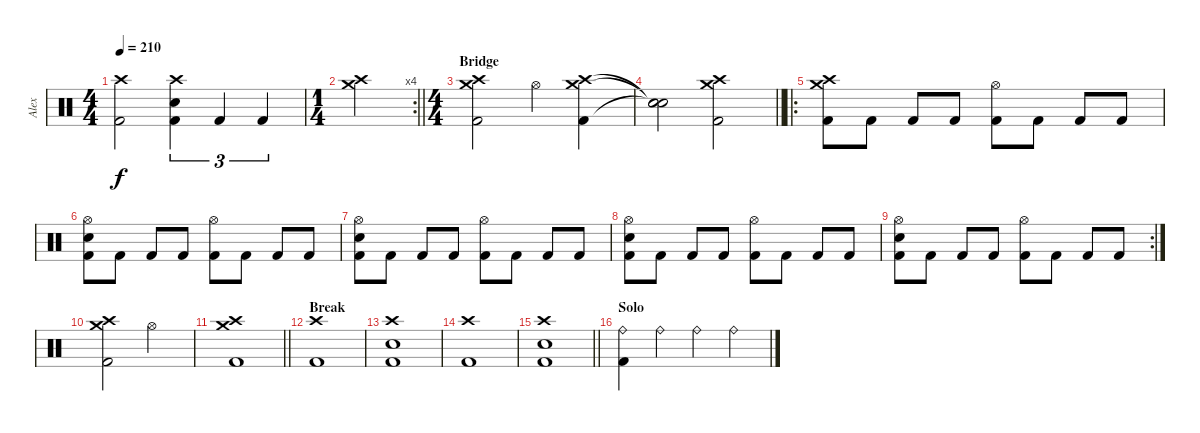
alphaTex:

\track ("Alex" "Alex") {instrument percussion}
\staff {score}
\articulation defaults
\ts (4 4)
\tempo 210
\clef neutral
\ks c
("Crash high (hit)" "Kick (hit) 2").2{dy f} ("Crash high (hit)" "Electric Snare (hit)" "Kick (hit) 2").4{tu (3 2)} "Kick (hit) 2".4{tu (3 2)} "Kick (hit) 2".4{tu (3 2)} |
\rc 4
\ts (1 4)
\barLineRight lightlight
("Crash high (hit)" "Crash medium (hit)").4 |
\ts (4 4)
\section ("" "Bridge")
("Crash high (hit)" "Crash medium (hit)" "Kick (hit) 2").2 "Hi-Hat (open)".4 ("Crash high (hit)" "Crash medium (hit)" "Kick (hit) 2").4 |
\barLineRight lightlight
("Snare (hit)"{t} "Snare (hit)"{t} "Snare (hit)"{t}).2 ("Crash high (hit)" "Crash medium (hit)" "Kick (hit) 2").2 |
\ro
\section ("" "")
("Crash high (hit)" "Crash medium (hit)" "Kick (hit) 2").8 "Kick (hit) 2".8 "Kick (hit) 2".8 "Kick (hit) 2".8 ("Hi-Hat (open)" "Kick (hit) 2").8 "Kick (hit) 2".8 "Kick (hit) 2".8 "Kick (hit) 2".8 |
("Hi-Hat (open)" "Electric Snare (hit)" "Kick (hit) 2").8 "Kick (hit) 2".8 "Kick (hit) 2".8 "Kick (hit) 2".8 ("Hi-Hat (open)" "Kick (hit) 2").8 "Kick (hit) 2".8 "Kick (hit) 2".8 "Kick (hit) 2".8 |
("Hi-Hat (open)" "Electric Snare (hit)" "Kick (hit) 2").8 "Kick (hit) 2".8 "Kick (hit) 2".8 "Kick (hit) 2".8 ("Hi-Hat (open)" "Kick (hit) 2").8 "Kick (hit) 2".8 "Kick (hit) 2".8 "Kick (hit) 2".8 |
("Hi-Hat (open)" "Electric Snare (hit)" "Kick (hit) 2").8 "Kick (hit) 2".8 "Kick (hit) 2".8 "Kick (hit) 2".8 ("Hi-Hat (open)" "Kick (hit) 2").8 "Kick (hit) 2".8 "Kick (hit) 2".8 "Kick (hit) 2".8 |
\rc 2
("Hi-Hat (open)" "Electric Snare (hit)" "Kick (hit) 2").8 "Kick (hit) 2".8 "Kick (hit) 2".8 "Kick (hit) 2".8 ("Hi-Hat (open)" "Kick (hit) 2").8 "Kick (hit) 2".8 "Kick (hit) 2".8 "Kick (hit) 2".8 |
("Crash high (hit)" "Crash medium (hit)" "Kick (hit) 2").2 "Hi-Hat (open)".2 |
\barLineRight lightlight
("Crash high (hit)" "Crash medium (hit)" "Kick (hit) 2").1 |
\section ("" "Break")
("Crash high (hit)" "Kick (hit) 2").1 |
("Crash high (hit)" "Electric Snare (hit)" "Kick (hit) 2").1 |
("Crash high (hit)" "Kick (hit) 2").1 |
\barLineRight lightlight
("Crash high (hit)" "Electric Snare (hit)" "Kick (hit) 2").1 |
\section ("" "Solo")
("Ride (bell)" "Kick (hit) 2").4 "Ride (bell)".4 "Ride (bell)".4 "Ride (bell)".4
